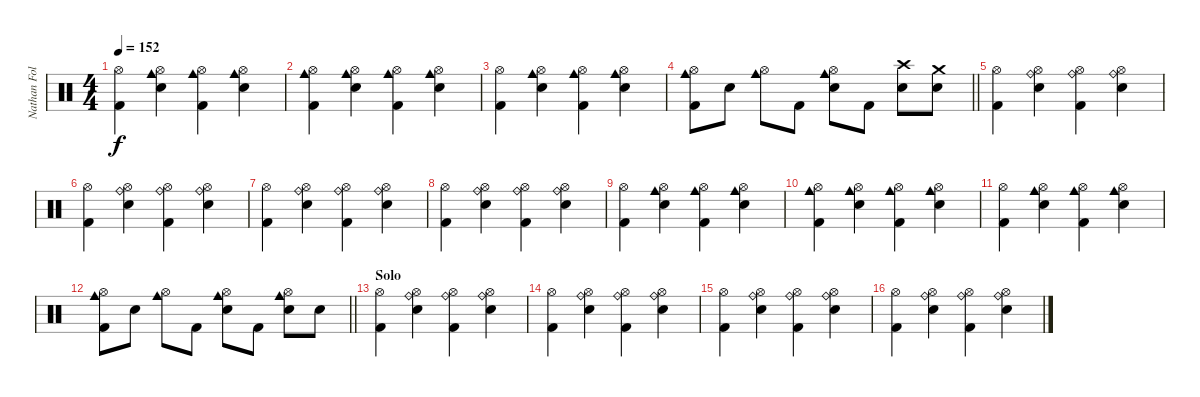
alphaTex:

\track ("Nathan Followill" "Nathan Fol") {instrument percussion}
\staff {score}
\articulation defaults
\ts (4 4)
\tempo 152
\clef neutral
\ks c
("Hi-Hat (open)" "Kick (hit) 2").4{dy f} ("Hi-Hat (open)" "Cowbell medium (hit)" "Electric Snare (hit)").4 ("Hi-Hat (open)" "Cowbell medium (hit)" "Kick (hit) 2").4 ("Hi-Hat (open)" "Cowbell medium (hit)" "Electric Snare (hit)").4 |
("Hi-Hat (open)" "Cowbell medium (hit)" "Kick (hit) 2").4 ("Hi-Hat (open)" "Cowbell medium (hit)" "Electric Snare (hit)").4 ("Hi-Hat (open)" "Cowbell medium (hit)" "Kick (hit) 2").4 ("Hi-Hat (open)" "Cowbell medium (hit)" "Electric Snare (hit)").4 |
("Hi-Hat (open)" "Kick (hit) 2").4 ("Hi-Hat (open)" "Cowbell medium (hit)" "Electric Snare (hit)").4 ("Hi-Hat (open)" "Cowbell medium (hit)" "Kick (hit) 2").4 ("Hi-Hat (open)" "Cowbell medium (hit)" "Electric Snare (hit)").4 |
\barLineRight lightlight
("Hi-Hat (open)" "Cowbell medium (hit)" "Kick (hit) 2").8 "Electric Snare (hit)".8 ("Hi-Hat (open)" "Cowbell medium (hit)").8 "Kick (hit) 2".8 ("Hi-Hat (open)" "Cowbell medium (hit)" "Electric Snare (hit)").8 "Kick (hit) 2".8 ("Crash high (hit)" "Electric Snare (hit)").8 ("Crash medium (hit)" "Electric Snare (hit)").8 |
\section ("" "")
("Hi-Hat (open)" "Kick (hit) 2").4 ("Hi-Hat (open)" "Ride (bell)" "Electric Snare (hit)").4 ("Hi-Hat (open)" "Ride (bell)" "Kick (hit) 2").4 ("Hi-Hat (open)" "Ride (bell)" "Electric Snare (hit)").4 |
("Hi-Hat (open)" "Kick (hit) 2").4 ("Hi-Hat (open)" "Ride (bell)" "Electric Snare (hit)").4 ("Hi-Hat (open)" "Ride (bell)" "Kick (hit) 2").4 ("Hi-Hat (open)" "Ride (bell)" "Electric Snare (hit)").4 |
("Hi-Hat (open)" "Kick (hit) 2").4 ("Hi-Hat (open)" "Ride (bell)" "Electric Snare (hit)").4 ("Hi-Hat (open)" "Ride (bell)" "Kick (hit) 2").4 ("Hi-Hat (open)" "Ride (bell)" "Electric Snare (hit)").4 |
("Hi-Hat (open)" "Kick (hit) 2").4 ("Hi-Hat (open)" "Ride (bell)" "Electric Snare (hit)").4 ("Hi-Hat (open)" "Ride (bell)" "Kick (hit) 2").4 ("Hi-Hat (open)" "Ride (bell)" "Electric Snare (hit)").4 |
("Hi-Hat (open)" "Kick (hit) 2").4 ("Hi-Hat (open)" "Cowbell medium (hit)" "Electric Snare (hit)").4 ("Hi-Hat (open)" "Cowbell medium (hit)" "Kick (hit) 2").4 ("Hi-Hat (open)" "Cowbell medium (hit)" "Electric Snare (hit)").4 |
("Hi-Hat (open)" "Cowbell medium (hit)" "Kick (hit) 2").4 ("Hi-Hat (open)" "Cowbell medium (hit)" "Electric Snare (hit)").4 ("Hi-Hat (open)" "Cowbell medium (hit)" "Kick (hit) 2").4 ("Hi-Hat (open)" "Cowbell medium (hit)" "Electric Snare (hit)").4 |
("Hi-Hat (open)" "Kick (hit) 2").4 ("Hi-Hat (open)" "Cowbell medium (hit)" "Electric Snare (hit)").4 ("Hi-Hat (open)" "Cowbell medium (hit)" "Kick (hit) 2").4 ("Hi-Hat (open)" "Cowbell medium (hit)" "Electric Snare (hit)").4 |
\barLineRight lightlight
("Hi-Hat (open)" "Cowbell medium (hit)" "Kick (hit) 2").8 "Electric Snare (hit)".8 ("Hi-Hat (open)" "Cowbell medium (hit)").8 "Kick (hit) 2".8 ("Hi-Hat (open)" "Cowbell medium (hit)" "Electric Snare (hit)").8 "Kick (hit) 2".8 ("Hi-Hat (open)" "Cowbell medium (hit)" "Electric Snare (hit)").8 "Electric Snare (hit)".8 |
\section ("" "Solo")
("Hi-Hat (open)" "Kick (hit) 2").4 ("Hi-Hat (open)" "Ride (bell)" "Electric Snare (hit)").4 ("Hi-Hat (open)" "Ride (bell)" "Kick (hit) 2").4 ("Hi-Hat (open)" "Ride (bell)" "Electric Snare (hit)").4 |
("Hi-Hat (open)" "Kick (hit) 2").4 ("Hi-Hat (open)" "Ride (bell)" "Electric Snare (hit)").4 ("Hi-Hat (open)" "Ride (bell)" "Kick (hit) 2").4 ("Hi-Hat (open)" "Ride (bell)" "Electric Snare (hit)").4 |
("Hi-Hat (open)" "Kick (hit) 2").4 ("Hi-Hat (open)" "Ride (bell)" "Electric Snare (hit)").4 ("Hi-Hat (open)" "Ride (bell)" "Kick (hit) 2").4 ("Hi-Hat (open)" "Ride (bell)" "Electric Snare (hit)").4 |
("Hi-Hat (open)" "Kick (hit) 2").4 ("Hi-Hat (open)" "Ride (bell)" "Electric Snare (hit)").4 ("Hi-Hat (open)" "Ride (bell)" "Kick (hit) 2").4 ("Hi-Hat (open)" "Ride (bell)" "Electric Snare (hit)").4
